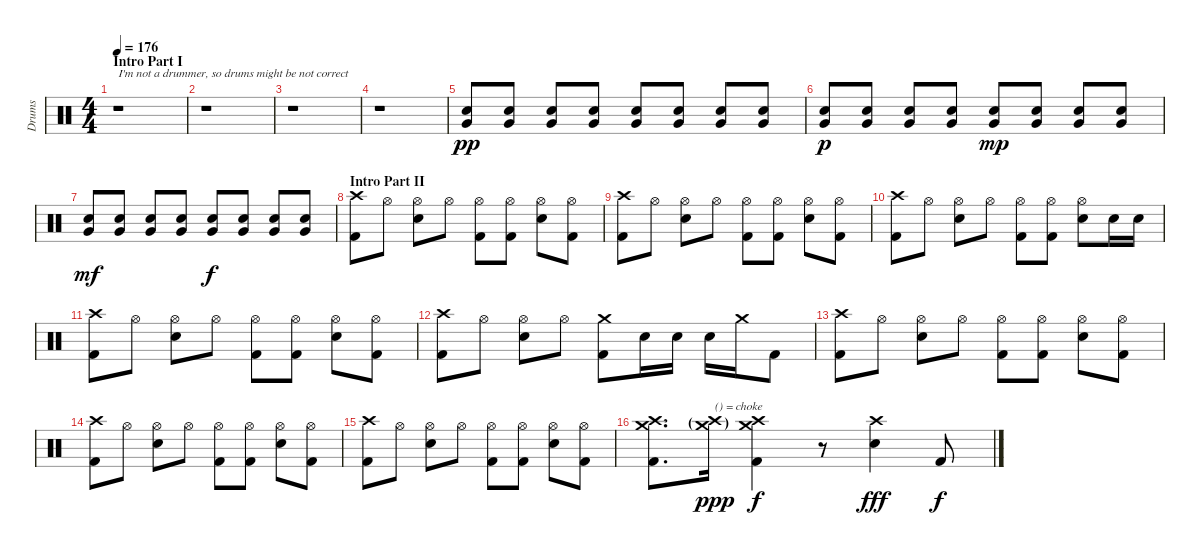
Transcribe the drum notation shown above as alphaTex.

\track ("Drums" "Drums") {instrument percussion}
\staff {score}
\articulation defaults
\ts (4 4)
\section ("" "Intro Part I")
\tempo 176
\clef neutral
\ks c
r.1{txt "I'm not a drummer, so drums might be not correct" dy pp} |
r.1 |
r.1 |
r.1 |
("Electric Snare (hit)" "Very Low Tom (hit)").8 ("Electric Snare (hit)" "Very Low Tom (hit)").8 ("Electric Snare (hit)" "Very Low Tom (hit)").8 ("Electric Snare (hit)" "Very Low Tom (hit)").8 ("Electric Snare (hit)" "Very Low Tom (hit)").8 ("Electric Snare (hit)" "Very Low Tom (hit)").8 ("Electric Snare (hit)" "Very Low Tom (hit)").8 ("Electric Snare (hit)" "Very Low Tom (hit)").8 |
("Electric Snare (hit)" "Very Low Tom (hit)").8{dy p} ("Electric Snare (hit)" "Very Low Tom (hit)").8 ("Electric Snare (hit)" "Very Low Tom (hit)").8 ("Electric Snare (hit)" "Very Low Tom (hit)").8 ("Electric Snare (hit)" "Very Low Tom (hit)").8{dy mp} ("Electric Snare (hit)" "Very Low Tom (hit)").8 ("Electric Snare (hit)" "Very Low Tom (hit)").8 ("Electric Snare (hit)" "Very Low Tom (hit)").8 |
("Electric Snare (hit)" "Very Low Tom (hit)").8{dy mf} ("Electric Snare (hit)" "Very Low Tom (hit)").8 ("Electric Snare (hit)" "Very Low Tom (hit)").8 ("Electric Snare (hit)" "Very Low Tom (hit)").8 ("Electric Snare (hit)" "Very Low Tom (hit)").8{dy f} ("Electric Snare (hit)" "Very Low Tom (hit)").8 ("Electric Snare (hit)" "Very Low Tom (hit)").8 ("Electric Snare (hit)" "Very Low Tom (hit)").8 |
\section ("" "Intro Part II")
("Crash high (hit)" "Kick (hit) 2").8 "Hi-Hat (open)".8 ("Hi-Hat (open)" "Electric Snare (hit)").8 "Hi-Hat (open)".8 ("Hi-Hat (open)" "Kick (hit) 2").8 ("Hi-Hat (open)" "Kick (hit) 2").8 ("Hi-Hat (open)" "Electric Snare (hit)").8 ("Hi-Hat (open)" "Kick (hit) 2").8 |
("Crash high (hit)" "Kick (hit) 2").8 "Hi-Hat (open)".8 ("Hi-Hat (open)" "Electric Snare (hit)").8 "Hi-Hat (open)".8 ("Hi-Hat (open)" "Kick (hit) 2").8 ("Hi-Hat (open)" "Kick (hit) 2").8 ("Hi-Hat (open)" "Electric Snare (hit)").8 ("Hi-Hat (open)" "Kick (hit) 2").8 |
("Crash high (hit)" "Kick (hit) 2").8 "Hi-Hat (open)".8 ("Hi-Hat (open)" "Electric Snare (hit)").8 "Hi-Hat (open)".8 ("Hi-Hat (open)" "Kick (hit) 2").8 ("Hi-Hat (open)" "Kick (hit) 2").8 ("Hi-Hat (open)" "Electric Snare (hit)").8 "Electric Snare (hit)".16 "Electric Snare (hit)".16 |
("Crash high (hit)" "Kick (hit) 2").8 "Hi-Hat (open)".8 ("Hi-Hat (open)" "Electric Snare (hit)").8 "Hi-Hat (open)".8 ("Hi-Hat (open)" "Kick (hit) 2").8 ("Hi-Hat (open)" "Kick (hit) 2").8 ("Hi-Hat (open)" "Electric Snare (hit)").8 ("Hi-Hat (open)" "Kick (hit) 2").8 |
("Crash high (hit)" "Kick (hit) 2").8 "Hi-Hat (open)".8 ("Hi-Hat (open)" "Electric Snare (hit)").8 "Hi-Hat (open)".8 ("Crash medium (hit)" "Kick (hit) 2").8 "Electric Snare (hit)".16 "Electric Snare (hit)".16 "Electric Snare (hit)".16 "Crash medium (hit)".16 "Kick (hit) 2".8 |
("Crash high (hit)" "Kick (hit) 2").8 "Hi-Hat (open)".8 ("Hi-Hat (open)" "Electric Snare (hit)").8 "Hi-Hat (open)".8 ("Hi-Hat (open)" "Kick (hit) 2").8 ("Hi-Hat (open)" "Kick (hit) 2").8 ("Hi-Hat (open)" "Electric Snare (hit)").8 ("Hi-Hat (open)" "Kick (hit) 2").8 |
("Crash high (hit)" "Kick (hit) 2").8 "Hi-Hat (open)".8 ("Hi-Hat (open)" "Electric Snare (hit)").8 "Hi-Hat (open)".8 ("Hi-Hat (open)" "Kick (hit) 2").8 ("Hi-Hat (open)" "Kick (hit) 2").8 ("Hi-Hat (open)" "Electric Snare (hit)").8 ("Hi-Hat (open)" "Kick (hit) 2").8 |
("Crash high (hit)" "Kick (hit) 2").8 "Hi-Hat (open)".8 ("Hi-Hat (open)" "Electric Snare (hit)").8 "Hi-Hat (open)".8 ("Hi-Hat (open)" "Kick (hit) 2").8 ("Hi-Hat (open)" "Kick (hit) 2").8 ("Hi-Hat (open)" "Electric Snare (hit)").8 ("Hi-Hat (open)" "Kick (hit) 2").8 |
("Crash high (hit)" "Crash medium (hit)" "Kick (hit) 2").8{d} ("Crash high (hit)"{g} "Crash medium (hit)"{g}).16{txt "() = choke" dy ppp} ("Crash high (hit)" "Crash medium (hit)" "Kick (hit) 2").4{dy f} r.8 ("Crash high (hit)" "Electric Snare (hit)").4{dy fff} "Kick (hit) 2".8{dy f}
